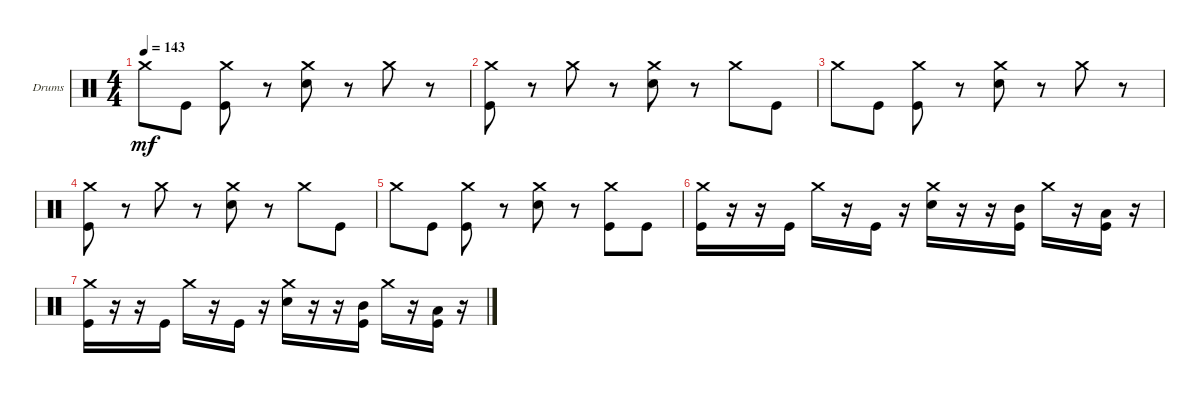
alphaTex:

\defaultSystemsLayout 4
\bracketExtendMode groupsimilarinstruments
\firstSystemTrackNameOrientation horizontal
\otherSystemsTrackNameOrientation horizontal
\track ("Drumkit" "Drums") {instrument percussion}
\staff {score}
\articulation defaults
\ts (4 4)
\tempo 143
\clef neutral
\scale
0.333333
\ks c "Crash medium (hit)".8{dy mf} "Kick (hit)".8
("Kick (hit)" "Crash medium (hit)").8 r.8 ("Snare (hit) 2" "Crash medium (hit)").8 r.8 "Crash medium (hit)".8 r.8 |
\scale
0.333333 ("Kick (hit)" "Crash medium (hit)").8 r.8 "Crash medium (hit)".8 r.8 ("Snare (hit) 2" "Crash medium (hit)").8 r.8 "Crash medium (hit)".8 "Kick (hit)".8 |
\scale
0.333333 "Crash medium (hit)".8 "Kick (hit)".8 ("Kick (hit)" "Crash medium (hit)").8 r.8 ("Snare (hit) 2" "Crash medium (hit)").8 r.8 "Crash medium (hit)".8 r.8 |
\scale
0.333333 ("Kick (hit)" "Crash medium (hit)").8 r.8 "Crash medium (hit)".8 r.8 ("Snare (hit) 2" "Crash medium (hit)").8 r.8 "Crash medium (hit)".8 "Kick (hit)".8 |
\scale
0.333333 "Crash medium (hit)".8 "Kick (hit)".8 ("Kick (hit)" "Crash medium (hit)").8 r.8 ("Snare (hit) 2" "Crash medium (hit)").8 r.8 ("Crash medium (hit)" "Kick (hit)").8 "Kick (hit)".8 |
\scale
0.333333 ("Kick (hit)" "Crash medium (hit)").16 r.16 r.16 "Kick (hit)".16 "Crash medium (hit)".16 r.16 "Kick (hit)".16 r.16 ("Snare (hit) 2" "Crash medium (hit)").16 r.16 r.16 ("Kick (hit)" "Mid Tom (hit)").16 "Crash medium (hit)".16 r.16 ("Kick (hit)" "Low Tom (hit)").16 r.16 |
\scale
0.333333 ("Kick (hit)" "Crash medium (hit)").16 r.16 r.16 "Kick (hit)".16 "Crash medium (hit)".16 r.16 "Kick (hit)".16 r.16 ("Snare (hit) 2" "Crash medium (hit)").16 r.16 r.16 ("Kick (hit)" "Mid Tom (hit)").16 "Crash medium (hit)".16 r.16 ("Kick (hit)" "Low Tom (hit)").16 r.16 |
\scale
0.333333 |
\scale
0.333333
